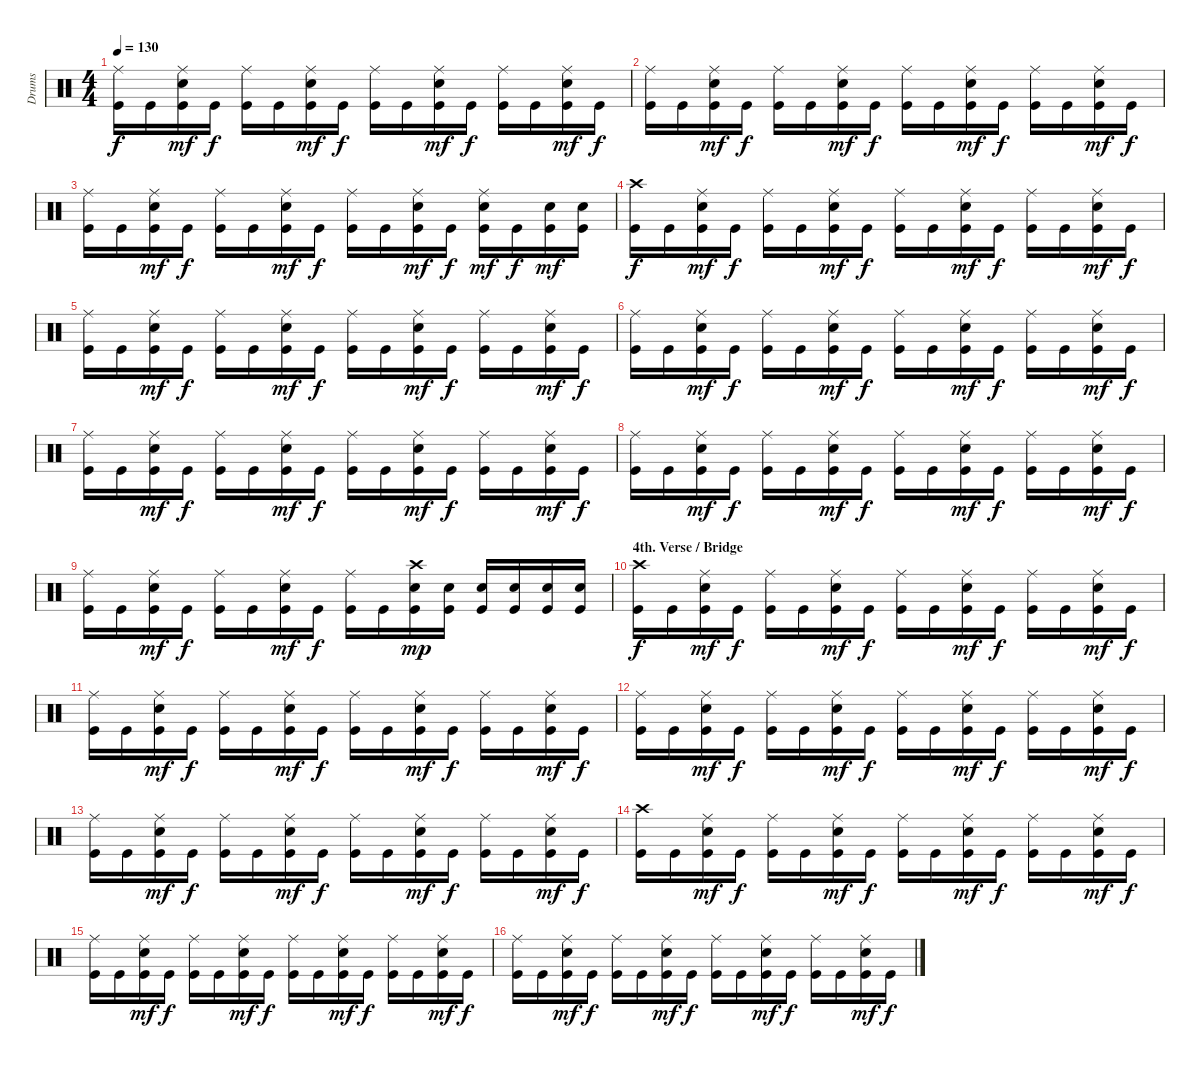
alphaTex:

\track ("Drums" "Drums") {instrument percussion}
\staff {score}
\articulation defaults
\ts (4 4)
\tempo 130
\clef neutral
\ks c
("Ride (middle)" "Kick (hit)").16{dy f} "Kick (hit)".16 ("Ride (middle)" "Snare (hit) 2" "Kick (hit)").16{dy mf} "Kick (hit)".16{dy f} ("Ride (middle)" "Kick (hit)").16 "Kick (hit)".16 ("Ride (middle)" "Snare (hit) 2" "Kick (hit)").16{dy mf} "Kick (hit)".16{dy f} ("Ride (middle)" "Kick (hit)").16 "Kick (hit)".16 ("Ride (middle)" "Snare (hit) 2" "Kick (hit)").16{dy mf} "Kick (hit)".16{dy f} ("Ride (middle)" "Kick (hit)").16 "Kick (hit)".16 ("Ride (middle)" "Snare (hit) 2" "Kick (hit)").16{dy mf} "Kick (hit)".16{dy f} |
("Ride (middle)" "Kick (hit)").16 "Kick (hit)".16 ("Ride (middle)" "Snare (hit) 2" "Kick (hit)").16{dy mf} "Kick (hit)".16{dy f} ("Ride (middle)" "Kick (hit)").16 "Kick (hit)".16 ("Ride (middle)" "Snare (hit) 2" "Kick (hit)").16{dy mf} "Kick (hit)".16{dy f} ("Ride (middle)" "Kick (hit)").16 "Kick (hit)".16 ("Ride (middle)" "Snare (hit) 2" "Kick (hit)").16{dy mf} "Kick (hit)".16{dy f} ("Ride (middle)" "Kick (hit)").16 "Kick (hit)".16 ("Ride (middle)" "Snare (hit) 2" "Kick (hit)").16{dy mf} "Kick (hit)".16{dy f} |
("Ride (middle)" "Kick (hit)").16 "Kick (hit)".16 ("Ride (middle)" "Snare (hit) 2" "Kick (hit)").16{dy mf} "Kick (hit)".16{dy f} ("Ride (middle)" "Kick (hit)").16 "Kick (hit)".16 ("Ride (middle)" "Snare (hit) 2" "Kick (hit)").16{dy mf} "Kick (hit)".16{dy f} ("Ride (middle)" "Kick (hit)").16 "Kick (hit)".16 ("Ride (middle)" "Snare (hit) 2" "Kick (hit)").16{dy mf} "Kick (hit)".16{dy f} ("Ride (middle)" "Snare (hit) 2" "Kick (hit)").16{dy mf} "Kick (hit)".16{dy f} ("Snare (hit) 2" "Kick (hit)").16{dy mf} ("Snare (hit) 2" "Kick (hit)").16 |
("Crash high (hit)" "Kick (hit)").16{dy f} "Kick (hit)".16 ("Ride (middle)" "Snare (hit) 2" "Kick (hit)").16{dy mf} "Kick (hit)".16{dy f} ("Ride (middle)" "Kick (hit)").16 "Kick (hit)".16 ("Ride (middle)" "Snare (hit) 2" "Kick (hit)").16{dy mf} "Kick (hit)".16{dy f} ("Ride (middle)" "Kick (hit)").16 "Kick (hit)".16 ("Ride (middle)" "Snare (hit) 2" "Kick (hit)").16{dy mf} "Kick (hit)".16{dy f} ("Ride (middle)" "Kick (hit)").16 "Kick (hit)".16 ("Ride (middle)" "Snare (hit) 2" "Kick (hit)").16{dy mf} "Kick (hit)".16{dy f} |
("Ride (middle)" "Kick (hit)").16 "Kick (hit)".16 ("Ride (middle)" "Snare (hit) 2" "Kick (hit)").16{dy mf} "Kick (hit)".16{dy f} ("Ride (middle)" "Kick (hit)").16 "Kick (hit)".16 ("Ride (middle)" "Snare (hit) 2" "Kick (hit)").16{dy mf} "Kick (hit)".16{dy f} ("Ride (middle)" "Kick (hit)").16 "Kick (hit)".16 ("Ride (middle)" "Snare (hit) 2" "Kick (hit)").16{dy mf} "Kick (hit)".16{dy f} ("Ride (middle)" "Kick (hit)").16 "Kick (hit)".16 ("Ride (middle)" "Snare (hit) 2" "Kick (hit)").16{dy mf} "Kick (hit)".16{dy f} |
("Ride (middle)" "Kick (hit)").16 "Kick (hit)".16 ("Ride (middle)" "Snare (hit) 2" "Kick (hit)").16{dy mf} "Kick (hit)".16{dy f} ("Ride (middle)" "Kick (hit)").16 "Kick (hit)".16 ("Ride (middle)" "Snare (hit) 2" "Kick (hit)").16{dy mf} "Kick (hit)".16{dy f} ("Ride (middle)" "Kick (hit)").16 "Kick (hit)".16 ("Ride (middle)" "Snare (hit) 2" "Kick (hit)").16{dy mf} "Kick (hit)".16{dy f} ("Ride (middle)" "Kick (hit)").16 "Kick (hit)".16 ("Ride (middle)" "Snare (hit) 2" "Kick (hit)").16{dy mf} "Kick (hit)".16{dy f} |
("Ride (middle)" "Kick (hit)").16 "Kick (hit)".16 ("Ride (middle)" "Snare (hit) 2" "Kick (hit)").16{dy mf} "Kick (hit)".16{dy f} ("Ride (middle)" "Kick (hit)").16 "Kick (hit)".16 ("Ride (middle)" "Snare (hit) 2" "Kick (hit)").16{dy mf} "Kick (hit)".16{dy f} ("Ride (middle)" "Kick (hit)").16 "Kick (hit)".16 ("Ride (middle)" "Snare (hit) 2" "Kick (hit)").16{dy mf} "Kick (hit)".16{dy f} ("Ride (middle)" "Kick (hit)").16 "Kick (hit)".16 ("Ride (middle)" "Snare (hit) 2" "Kick (hit)").16{dy mf} "Kick (hit)".16{dy f} |
("Ride (middle)" "Kick (hit)").16 "Kick (hit)".16 ("Ride (middle)" "Snare (hit) 2" "Kick (hit)").16{dy mf} "Kick (hit)".16{dy f} ("Ride (middle)" "Kick (hit)").16 "Kick (hit)".16 ("Ride (middle)" "Snare (hit) 2" "Kick (hit)").16{dy mf} "Kick (hit)".16{dy f} ("Ride (middle)" "Kick (hit)").16 "Kick (hit)".16 ("Ride (middle)" "Snare (hit) 2" "Kick (hit)").16{dy mf} "Kick (hit)".16{dy f} ("Ride (middle)" "Kick (hit)").16 "Kick (hit)".16 ("Ride (middle)" "Snare (hit) 2" "Kick (hit)").16{dy mf} "Kick (hit)".16{dy f} |
("Ride (middle)" "Kick (hit)").16 "Kick (hit)".16 ("Ride (middle)" "Snare (hit) 2" "Kick (hit)").16{dy mf} "Kick (hit)".16{dy f} ("Ride (middle)" "Kick (hit)").16 "Kick (hit)".16 ("Ride (middle)" "Snare (hit) 2" "Kick (hit)").16{dy mf} "Kick (hit)".16{dy f} ("Ride (middle)" "Kick (hit)").16 "Kick (hit)".16 ("Crash high (hit)" "Snare (hit) 2" "Kick (hit)").16{dy mp} ("Snare (hit) 2" "Kick (hit)").16 ("Snare (hit) 2" "Kick (hit)").16 ("Snare (hit) 2" "Kick (hit)").16 ("Snare (hit) 2" "Kick (hit)").16 ("Snare (hit) 2" "Kick (hit)").16 |
\section ("" "4th. Verse / Bridge")
("Crash high (hit)" "Kick (hit)").16{dy f} "Kick (hit)".16 ("Ride (middle)" "Snare (hit) 2" "Kick (hit)").16{dy mf} "Kick (hit)".16{dy f} ("Ride (middle)" "Kick (hit)").16 "Kick (hit)".16 ("Ride (middle)" "Snare (hit) 2" "Kick (hit)").16{dy mf} "Kick (hit)".16{dy f} ("Ride (middle)" "Kick (hit)").16 "Kick (hit)".16 ("Ride (middle)" "Snare (hit) 2" "Kick (hit)").16{dy mf} "Kick (hit)".16{dy f} ("Ride (middle)" "Kick (hit)").16 "Kick (hit)".16 ("Ride (middle)" "Snare (hit) 2" "Kick (hit)").16{dy mf} "Kick (hit)".16{dy f} |
("Ride (middle)" "Kick (hit)").16 "Kick (hit)".16 ("Ride (middle)" "Snare (hit) 2" "Kick (hit)").16{dy mf} "Kick (hit)".16{dy f} ("Ride (middle)" "Kick (hit)").16 "Kick (hit)".16 ("Ride (middle)" "Snare (hit) 2" "Kick (hit)").16{dy mf} "Kick (hit)".16{dy f} ("Ride (middle)" "Kick (hit)").16 "Kick (hit)".16 ("Ride (middle)" "Snare (hit) 2" "Kick (hit)").16{dy mf} "Kick (hit)".16{dy f} ("Ride (middle)" "Kick (hit)").16 "Kick (hit)".16 ("Ride (middle)" "Snare (hit) 2" "Kick (hit)").16{dy mf} "Kick (hit)".16{dy f} |
("Ride (middle)" "Kick (hit)").16 "Kick (hit)".16 ("Ride (middle)" "Snare (hit) 2" "Kick (hit)").16{dy mf} "Kick (hit)".16{dy f} ("Ride (middle)" "Kick (hit)").16 "Kick (hit)".16 ("Ride (middle)" "Snare (hit) 2" "Kick (hit)").16{dy mf} "Kick (hit)".16{dy f} ("Ride (middle)" "Kick (hit)").16 "Kick (hit)".16 ("Ride (middle)" "Snare (hit) 2" "Kick (hit)").16{dy mf} "Kick (hit)".16{dy f} ("Ride (middle)" "Kick (hit)").16 "Kick (hit)".16 ("Ride (middle)" "Snare (hit) 2" "Kick (hit)").16{dy mf} "Kick (hit)".16{dy f} |
("Ride (middle)" "Kick (hit)").16 "Kick (hit)".16 ("Ride (middle)" "Snare (hit) 2" "Kick (hit)").16{dy mf} "Kick (hit)".16{dy f} ("Ride (middle)" "Kick (hit)").16 "Kick (hit)".16 ("Ride (middle)" "Snare (hit) 2" "Kick (hit)").16{dy mf} "Kick (hit)".16{dy f} ("Ride (middle)" "Kick (hit)").16 "Kick (hit)".16 ("Ride (middle)" "Snare (hit) 2" "Kick (hit)").16{dy mf} "Kick (hit)".16{dy f} ("Ride (middle)" "Kick (hit)").16 "Kick (hit)".16 ("Ride (middle)" "Snare (hit) 2" "Kick (hit)").16{dy mf} "Kick (hit)".16{dy f} |
("Crash high (hit)" "Kick (hit)").16 "Kick (hit)".16 ("Ride (middle)" "Snare (hit) 2" "Kick (hit)").16{dy mf} "Kick (hit)".16{dy f} ("Ride (middle)" "Kick (hit)").16 "Kick (hit)".16 ("Ride (middle)" "Snare (hit) 2" "Kick (hit)").16{dy mf} "Kick (hit)".16{dy f} ("Ride (middle)" "Kick (hit)").16 "Kick (hit)".16 ("Ride (middle)" "Snare (hit) 2" "Kick (hit)").16{dy mf} "Kick (hit)".16{dy f} ("Ride (middle)" "Kick (hit)").16 "Kick (hit)".16 ("Ride (middle)" "Snare (hit) 2" "Kick (hit)").16{dy mf} "Kick (hit)".16{dy f} |
("Ride (middle)" "Kick (hit)").16 "Kick (hit)".16 ("Ride (middle)" "Snare (hit) 2" "Kick (hit)").16{dy mf} "Kick (hit)".16{dy f} ("Ride (middle)" "Kick (hit)").16 "Kick (hit)".16 ("Ride (middle)" "Snare (hit) 2" "Kick (hit)").16{dy mf} "Kick (hit)".16{dy f} ("Ride (middle)" "Kick (hit)").16 "Kick (hit)".16 ("Ride (middle)" "Snare (hit) 2" "Kick (hit)").16{dy mf} "Kick (hit)".16{dy f} ("Ride (middle)" "Kick (hit)").16 "Kick (hit)".16 ("Ride (middle)" "Snare (hit) 2" "Kick (hit)").16{dy mf} "Kick (hit)".16{dy f} |
("Ride (middle)" "Kick (hit)").16 "Kick (hit)".16 ("Ride (middle)" "Snare (hit) 2" "Kick (hit)").16{dy mf} "Kick (hit)".16{dy f} ("Ride (middle)" "Kick (hit)").16 "Kick (hit)".16 ("Ride (middle)" "Snare (hit) 2" "Kick (hit)").16{dy mf} "Kick (hit)".16{dy f} ("Ride (middle)" "Kick (hit)").16 "Kick (hit)".16 ("Ride (middle)" "Snare (hit) 2" "Kick (hit)").16{dy mf} "Kick (hit)".16{dy f} ("Ride (middle)" "Kick (hit)").16 "Kick (hit)".16 ("Ride (middle)" "Snare (hit) 2" "Kick (hit)").16{dy mf} "Kick (hit)".16{dy f}
